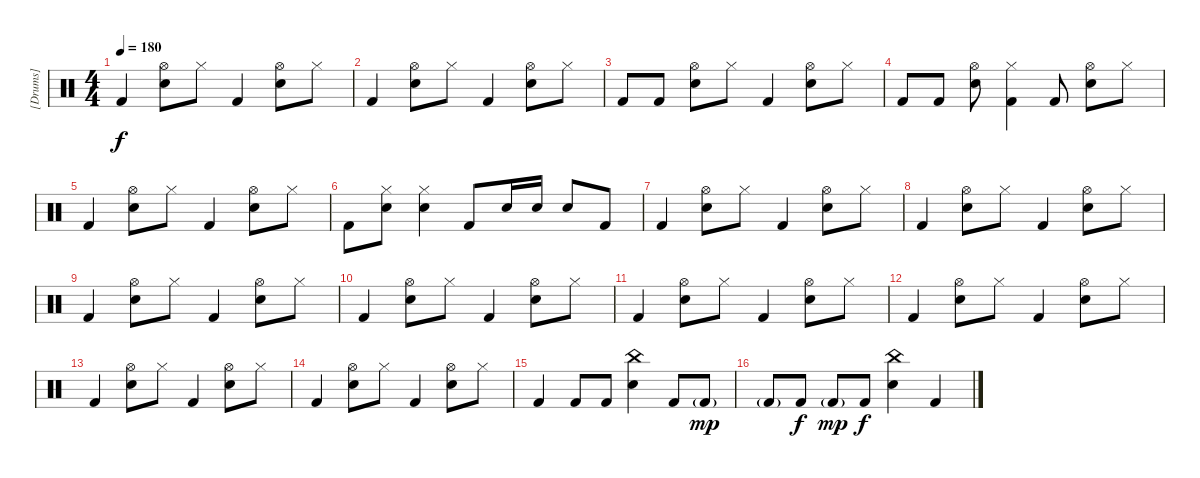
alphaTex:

\track ("[Drums]" "[Drums]") {instrument percussion}
\staff {score}
\articulation defaults
\ts (4 4)
\tempo 180
\clef neutral
\ks c "Kick (hit) 2".4{dy f}
("Hi-Hat (open)" "Electric Snare (hit)").8 "Hi-Hat (closed)".8 "Kick (hit) 2".4 ("Hi-Hat (open)" "Electric Snare (hit)").8 "Hi-Hat (closed)".8 |
"Kick (hit) 2".4 ("Hi-Hat (open)" "Electric Snare (hit)").8 "Hi-Hat (closed)".8 "Kick (hit) 2".4 ("Hi-Hat (open)" "Electric Snare (hit)").8 "Hi-Hat (closed)".8 |
"Kick (hit) 2".8 "Kick (hit) 2".8 ("Hi-Hat (open)" "Electric Snare (hit)").8 "Hi-Hat (closed)".8 "Kick (hit) 2".4 ("Hi-Hat (open)" "Electric Snare (hit)").8 "Hi-Hat (closed)".8 |
"Kick (hit) 2".8 "Kick (hit) 2".8 ("Hi-Hat (open)" "Electric Snare (hit)").8 ("Hi-Hat (closed)" "Kick (hit) 2").4 "Kick (hit) 2".8 ("Hi-Hat (open)" "Electric Snare (hit)").8 "Hi-Hat (closed)".8 |
"Kick (hit) 2".4 ("Hi-Hat (open)" "Electric Snare (hit)").8 "Hi-Hat (closed)".8 "Kick (hit) 2".4 ("Hi-Hat (open)" "Electric Snare (hit)").8 "Hi-Hat (closed)".8 |
"Kick (hit) 2".8 ("Hi-Hat (closed)" "Electric Snare (hit)").8 ("Hi-Hat (closed)" "Electric Snare (hit)").4 "Kick (hit) 2".8 "Electric Snare (hit)".16 "Electric Snare (hit)".16 "Electric Snare (hit)".8 "Kick (hit) 2".8 |
"Kick (hit) 2".4 ("Hi-Hat (open)" "Electric Snare (hit)").8 "Hi-Hat (closed)".8 "Kick (hit) 2".4 ("Hi-Hat (open)" "Electric Snare (hit)").8 "Hi-Hat (closed)".8 |
"Kick (hit) 2".4 ("Hi-Hat (open)" "Electric Snare (hit)").8 "Hi-Hat (closed)".8 "Kick (hit) 2".4 ("Hi-Hat (open)" "Electric Snare (hit)").8 "Hi-Hat (closed)".8 |
"Kick (hit) 2".4 ("Hi-Hat (open)" "Electric Snare (hit)").8 "Hi-Hat (closed)".8 "Kick (hit) 2".4 ("Hi-Hat (open)" "Electric Snare (hit)").8 "Hi-Hat (closed)".8 |
"Kick (hit) 2".4 ("Hi-Hat (open)" "Electric Snare (hit)").8 "Hi-Hat (closed)".8 "Kick (hit) 2".4 ("Hi-Hat (open)" "Electric Snare (hit)").8 "Hi-Hat (closed)".8 |
"Kick (hit) 2".4 ("Hi-Hat (open)" "Electric Snare (hit)").8 "Hi-Hat (closed)".8 "Kick (hit) 2".4 ("Hi-Hat (open)" "Electric Snare (hit)").8 "Hi-Hat (closed)".8 |
"Kick (hit) 2".4 ("Hi-Hat (open)" "Electric Snare (hit)").8 "Hi-Hat (closed)".8 "Kick (hit) 2".4 ("Hi-Hat (open)" "Electric Snare (hit)").8 "Hi-Hat (closed)".8 |
"Kick (hit) 2".4 ("Hi-Hat (open)" "Electric Snare (hit)").8 "Hi-Hat (closed)".8 "Kick (hit) 2".4 ("Hi-Hat (open)" "Electric Snare (hit)").8 "Hi-Hat (closed)".8 |
"Kick (hit) 2".4 ("Hi-Hat (open)" "Electric Snare (hit)").8 "Hi-Hat (closed)".8 "Kick (hit) 2".4 ("Hi-Hat (open)" "Electric Snare (hit)").8 "Hi-Hat (closed)".8 |
"Kick (hit) 2".4 "Kick (hit) 2".8 "Kick (hit) 2".8 ("China (hit)" "Electric Snare (hit)").4 "Kick (hit) 2".8 "Kick (hit) 2"{g}.8{dy mp} |
"Kick (hit) 2"{g}.8 "Kick (hit) 2".8{dy f} "Kick (hit) 2"{g}.8{dy mp} "Kick (hit) 2".8{dy f} ("China (hit)" "Electric Snare (hit)").4 "Kick (hit) 2".4
